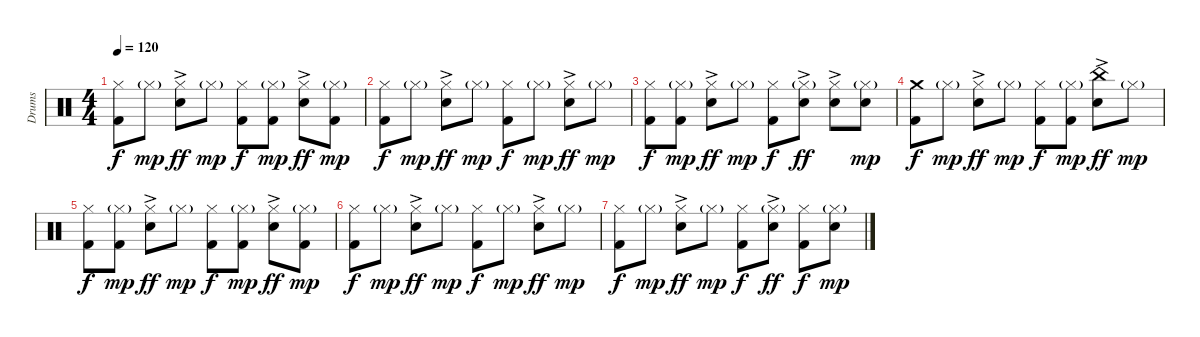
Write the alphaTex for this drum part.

\track ("Drums" "Drums") {instrument percussion}
\staff {score}
\articulation defaults
\ts (4 4)
\tempo 120
\clef neutral
\ks c
("Hi-Hat (closed)" "Kick (hit) 2").8{dy f} "Hi-Hat (closed)"{g}.8{dy mp} ("Hi-Hat (closed)" "Snare (hit) 2"{ac}).8{dy ff} "Hi-Hat (closed)"{g}.8{dy mp} ("Hi-Hat (closed)" "Kick (hit) 2").8{dy f} ("Hi-Hat (closed)"{g} "Kick (hit) 2").8{dy mp} ("Hi-Hat (closed)" "Snare (hit) 2"{ac}).8{dy ff} ("Hi-Hat (closed)"{g} "Kick (hit) 2").8{dy mp} |
("Hi-Hat (closed)" "Kick (hit) 2").8{dy f} "Hi-Hat (closed)"{g}.8{dy mp} ("Hi-Hat (closed)" "Snare (hit) 2"{ac}).8{dy ff} "Hi-Hat (closed)"{g}.8{dy mp} ("Hi-Hat (closed)" "Kick (hit) 2").8{dy f} "Hi-Hat (closed)"{g}.8{dy mp} ("Hi-Hat (closed)" "Snare (hit) 2"{ac}).8{dy ff} "Hi-Hat (closed)"{g}.8{dy mp} |
("Hi-Hat (closed)" "Kick (hit) 2").8{dy f} ("Hi-Hat (closed)"{g} "Kick (hit) 2").8{dy mp} ("Hi-Hat (closed)" "Snare (hit) 2"{ac}).8{dy ff} "Hi-Hat (closed)"{g}.8{dy mp} ("Hi-Hat (closed)" "Kick (hit) 2").8{dy f} ("Hi-Hat (closed)"{g} "Snare (hit) 2"{ac}).8{dy ff} ("Hi-Hat (closed)" "Snare (hit) 2"{ac}).8 ("Hi-Hat (closed)"{g} "Snare (hit) 2").8{dy mp} |
("Crash medium (hit)" "Kick (hit) 2").8{dy f volume 0} "Hi-Hat (closed)"{g}.8{dy mp} ("Hi-Hat (closed)" "Snare (hit) 2"{ac}).8{dy ff} "Hi-Hat (closed)"{g}.8{dy mp} ("Hi-Hat (closed)" "Kick (hit) 2").8{dy f} ("Hi-Hat (closed)"{g} "Kick (hit) 2").8{dy mp} ("China (hit)" "Snare (hit) 2"{ac}).8{dy ff} "Hi-Hat (closed)"{g}.8{dy mp} |
("Hi-Hat (closed)" "Kick (hit) 2").8{dy f} ("Hi-Hat (closed)"{g} "Kick (hit) 2").8{dy mp} ("Hi-Hat (closed)" "Snare (hit) 2"{ac}).8{dy ff} "Hi-Hat (closed)"{g}.8{dy mp} ("Hi-Hat (closed)" "Kick (hit) 2").8{dy f} ("Hi-Hat (closed)"{g} "Kick (hit) 2").8{dy mp} ("Hi-Hat (closed)" "Snare (hit) 2"{ac}).8{dy ff} ("Hi-Hat (closed)"{g} "Kick (hit) 2").8{dy mp} |
("Hi-Hat (closed)" "Kick (hit) 2").8{dy f} "Hi-Hat (closed)"{g}.8{dy mp} ("Hi-Hat (closed)" "Snare (hit) 2"{ac}).8{dy ff} "Hi-Hat (closed)"{g}.8{dy mp} ("Hi-Hat (closed)" "Kick (hit) 2").8{dy f} "Hi-Hat (closed)"{g}.8{dy mp} ("Hi-Hat (closed)" "Snare (hit) 2"{ac}).8{dy ff} "Hi-Hat (closed)"{g}.8{dy mp} |
("Hi-Hat (closed)" "Kick (hit) 2").8{dy f} "Hi-Hat (closed)"{g}.8{dy mp} ("Hi-Hat (closed)" "Snare (hit) 2"{ac}).8{dy ff} "Hi-Hat (closed)"{g}.8{dy mp} ("Hi-Hat (closed)" "Kick (hit) 2").8{dy f} ("Hi-Hat (closed)"{g} "Snare (hit) 2"{ac}).8{dy ff} ("Hi-Hat (closed)" "Kick (hit) 2").8{dy f} ("Hi-Hat (closed)"{g} "Snare (hit) 2").8{dy mp}
